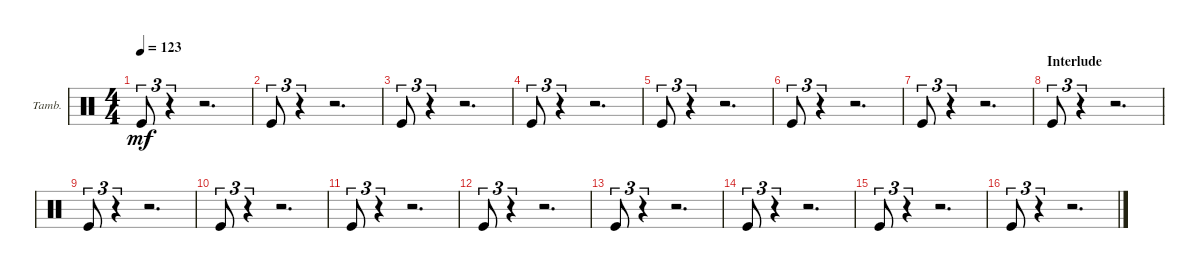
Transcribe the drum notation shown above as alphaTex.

\defaultSystemsLayout 4
\bracketExtendMode groupsimilarinstruments
\firstSystemTrackNameOrientation horizontal
\otherSystemsTrackNameOrientation horizontal
\track ("Tambourine" "Tamb.") {multiBarRest instrument percussion}
\staff {score}
\articulation defaults
\ts (4 4)
\tempo 123
\clef neutral
\ks c "Kick (hit)".8{tu (3 2) dy mf}
r.4{tu (3 2)} r.2{d} |
"Kick (hit)".8{tu (3 2)} r.4{tu (3 2)} r.2{d} |
"Kick (hit)".8{tu (3 2)} r.4{tu (3 2)} r.2{d} |
"Kick (hit)".8{tu (3 2)} r.4{tu (3 2)} r.2{d} |
"Kick (hit)".8{tu (3 2)} r.4{tu (3 2)} r.2{d} |
"Kick (hit)".8{tu (3 2)} r.4{tu (3 2)} r.2{d} |
"Kick (hit)".8{tu (3 2)} r.4{tu (3 2)} r.2{d} |
\section ("" "Interlude")
"Kick (hit)".8{tu (3 2)} r.4{tu (3 2)} r.2{d} |
"Kick (hit)".8{tu (3 2)} r.4{tu (3 2)} r.2{d} |
"Kick (hit)".8{tu (3 2)} r.4{tu (3 2)} r.2{d} |
"Kick (hit)".8{tu (3 2)} r.4{tu (3 2)} r.2{d} |
"Kick (hit)".8{tu (3 2)} r.4{tu (3 2)} r.2{d} |
"Kick (hit)".8{tu (3 2)} r.4{tu (3 2)} r.2{d} |
"Kick (hit)".8{tu (3 2)} r.4{tu (3 2)} r.2{d} |
"Kick (hit)".8{tu (3 2)} r.4{tu (3 2)} r.2{d} |
"Kick (hit)".8{tu (3 2)} r.4{tu (3 2)} r.2{d}
